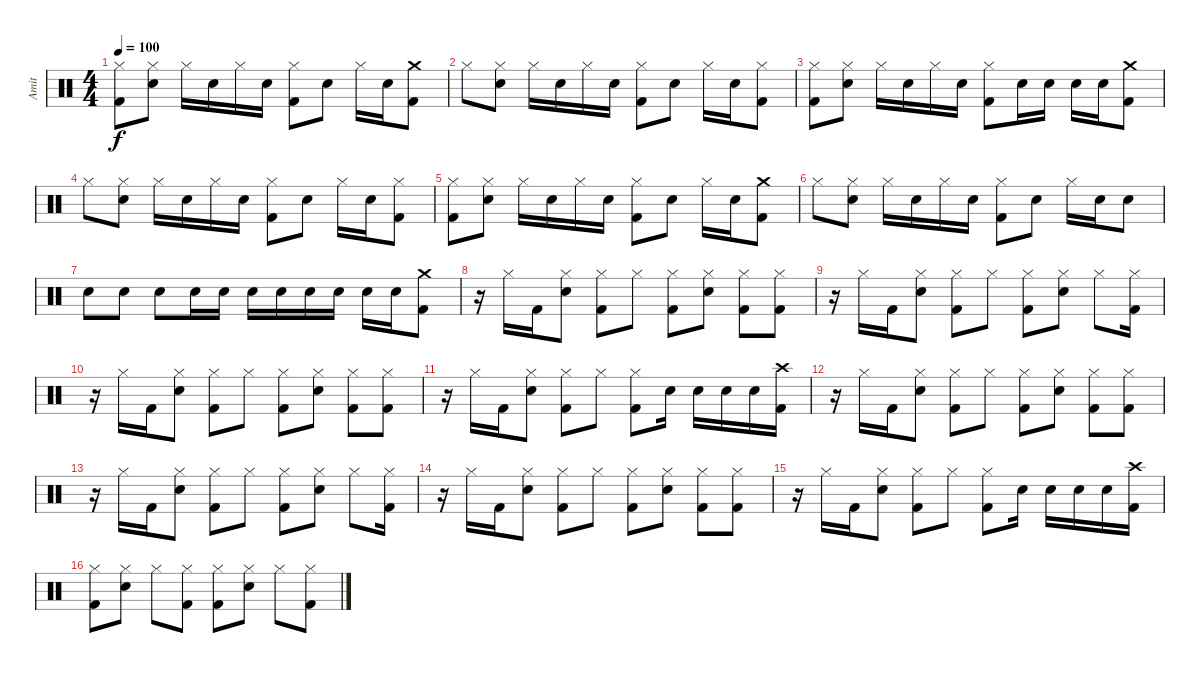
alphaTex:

\track ("Amit" "Amit") {instrument percussion}
\staff {score}
\articulation defaults
\ts (4 4)
\tempo 100
\clef neutral
\ks c
("Hi-Hat (closed)" "Kick (hit) 2").8{dy f} ("Hi-Hat (closed)" "Snare (hit) 2").8 "Hi-Hat (closed)".16 "Snare (hit) 2".16 "Hi-Hat (closed)".16 "Snare (hit) 2".16 ("Hi-Hat (closed)" "Kick (hit) 2").8 "Snare (hit) 2".8 "Hi-Hat (closed)".16 "Snare (hit) 2".16 ("Crash medium (hit)" "Kick (hit) 2").8 |
"Hi-Hat (closed)".8 ("Hi-Hat (closed)" "Snare (hit) 2").8 "Hi-Hat (closed)".16 "Snare (hit) 2".16 "Hi-Hat (closed)".16 "Snare (hit) 2".16 ("Hi-Hat (closed)" "Kick (hit) 2").8 "Snare (hit) 2".8 "Hi-Hat (closed)".16 "Snare (hit) 2".16 ("Hi-Hat (closed)" "Kick (hit) 2").8 |
("Hi-Hat (closed)" "Kick (hit) 2").8 ("Hi-Hat (closed)" "Snare (hit) 2").8 "Hi-Hat (closed)".16 "Snare (hit) 2".16 "Hi-Hat (closed)".16 "Snare (hit) 2".16 ("Hi-Hat (closed)" "Kick (hit) 2").8 "Snare (hit) 2".16 "Snare (hit) 2".16 "Snare (hit) 2".16 "Snare (hit) 2".16 ("Crash medium (hit)" "Kick (hit) 2").8 |
"Hi-Hat (closed)".8 ("Hi-Hat (closed)" "Snare (hit) 2").8 "Hi-Hat (closed)".16 "Snare (hit) 2".16 "Hi-Hat (closed)".16 "Snare (hit) 2".16 ("Hi-Hat (closed)" "Kick (hit) 2").8 "Snare (hit) 2".8 "Hi-Hat (closed)".16 "Snare (hit) 2".16 ("Hi-Hat (closed)" "Kick (hit) 2").8 |
("Hi-Hat (closed)" "Kick (hit) 2").8 ("Hi-Hat (closed)" "Snare (hit) 2").8 "Hi-Hat (closed)".16 "Snare (hit) 2".16 "Hi-Hat (closed)".16 "Snare (hit) 2".16 ("Hi-Hat (closed)" "Kick (hit) 2").8 "Snare (hit) 2".8 "Hi-Hat (closed)".16 "Snare (hit) 2".16 ("Crash medium (hit)" "Kick (hit) 2").8 |
"Hi-Hat (closed)".8 ("Hi-Hat (closed)" "Snare (hit) 2").8 "Hi-Hat (closed)".16 "Snare (hit) 2".16 "Hi-Hat (closed)".16 "Snare (hit) 2".16 ("Hi-Hat (closed)" "Kick (hit) 2").8 "Snare (hit) 2".8 "Hi-Hat (closed)".16 "Snare (hit) 2".16 "Snare (hit) 2".8 |
"Snare (hit) 2".8 "Snare (hit) 2".8 "Snare (hit) 2".8 "Snare (hit) 2".16 "Snare (hit) 2".16 "Snare (hit) 2".16 "Snare (hit) 2".16 "Snare (hit) 2".16 "Snare (hit) 2".16 "Snare (hit) 2".16 "Snare (hit) 2".16 ("Crash medium (hit)" "Kick (hit) 2").8 |
r.16 "Hi-Hat (closed)".16 "Kick (hit) 2".16 ("Hi-Hat (closed)" "Snare (hit) 2").8 ("Hi-Hat (closed)" "Kick (hit) 2").8 "Hi-Hat (closed)".8 ("Hi-Hat (closed)" "Kick (hit) 2").8 ("Hi-Hat (closed)" "Snare (hit) 2").8 ("Hi-Hat (closed)" "Kick (hit) 2").8 ("Hi-Hat (closed)" "Kick (hit) 2").8 |
r.16 "Hi-Hat (closed)".16 "Kick (hit) 2".16 ("Hi-Hat (closed)" "Snare (hit) 2").8 ("Hi-Hat (closed)" "Kick (hit) 2").8 "Hi-Hat (closed)".8 ("Hi-Hat (closed)" "Kick (hit) 2").8 ("Hi-Hat (closed)" "Snare (hit) 2").8 "Hi-Hat (closed)".8 ("Hi-Hat (closed)" "Kick (hit) 2").16 |
r.16 "Hi-Hat (closed)".16 "Kick (hit) 2".16 ("Hi-Hat (closed)" "Snare (hit) 2").8 ("Hi-Hat (closed)" "Kick (hit) 2").8 "Hi-Hat (closed)".8 ("Hi-Hat (closed)" "Kick (hit) 2").8 ("Hi-Hat (closed)" "Snare (hit) 2").8 ("Hi-Hat (closed)" "Kick (hit) 2").8 ("Hi-Hat (closed)" "Kick (hit) 2").8 |
r.16 "Hi-Hat (closed)".16 "Kick (hit) 2".16 ("Hi-Hat (closed)" "Snare (hit) 2").8 ("Hi-Hat (closed)" "Kick (hit) 2").8 "Hi-Hat (closed)".8 ("Hi-Hat (closed)" "Kick (hit) 2").8 "Snare (hit) 2".16 "Snare (hit) 2".16 "Snare (hit) 2".16 "Snare (hit) 2".16 ("Kick (hit) 2" "Crash high (hit)").16 |
r.16 "Hi-Hat (closed)".16 "Kick (hit) 2".16 ("Hi-Hat (closed)" "Snare (hit) 2").8 ("Hi-Hat (closed)" "Kick (hit) 2").8 "Hi-Hat (closed)".8 ("Hi-Hat (closed)" "Kick (hit) 2").8 ("Hi-Hat (closed)" "Snare (hit) 2").8 ("Hi-Hat (closed)" "Kick (hit) 2").8 ("Hi-Hat (closed)" "Kick (hit) 2").8 |
r.16 "Hi-Hat (closed)".16 "Kick (hit) 2".16 ("Hi-Hat (closed)" "Snare (hit) 2").8 ("Hi-Hat (closed)" "Kick (hit) 2").8 "Hi-Hat (closed)".8 ("Hi-Hat (closed)" "Kick (hit) 2").8 ("Hi-Hat (closed)" "Snare (hit) 2").8 "Hi-Hat (closed)".8 ("Hi-Hat (closed)" "Kick (hit) 2").16 |
r.16 "Hi-Hat (closed)".16 "Kick (hit) 2".16 ("Hi-Hat (closed)" "Snare (hit) 2").8 ("Hi-Hat (closed)" "Kick (hit) 2").8 "Hi-Hat (closed)".8 ("Hi-Hat (closed)" "Kick (hit) 2").8 ("Hi-Hat (closed)" "Snare (hit) 2").8 ("Hi-Hat (closed)" "Kick (hit) 2").8 ("Hi-Hat (closed)" "Kick (hit) 2").8 |
r.16 "Hi-Hat (closed)".16 "Kick (hit) 2".16 ("Hi-Hat (closed)" "Snare (hit) 2").8 ("Hi-Hat (closed)" "Kick (hit) 2").8 "Hi-Hat (closed)".8 ("Hi-Hat (closed)" "Kick (hit) 2").8 "Snare (hit) 2".16 "Snare (hit) 2".16 "Snare (hit) 2".16 "Snare (hit) 2".16 ("Kick (hit) 2" "Crash high (hit)").16 |
("Hi-Hat (closed)" "Kick (hit) 2").8 ("Hi-Hat (closed)" "Snare (hit) 2").8 "Hi-Hat (closed)".8 ("Hi-Hat (closed)" "Kick (hit) 2").8 ("Hi-Hat (closed)" "Kick (hit) 2").8 ("Hi-Hat (closed)" "Snare (hit) 2").8 "Hi-Hat (closed)".8 ("Hi-Hat (closed)" "Kick (hit) 2").8
